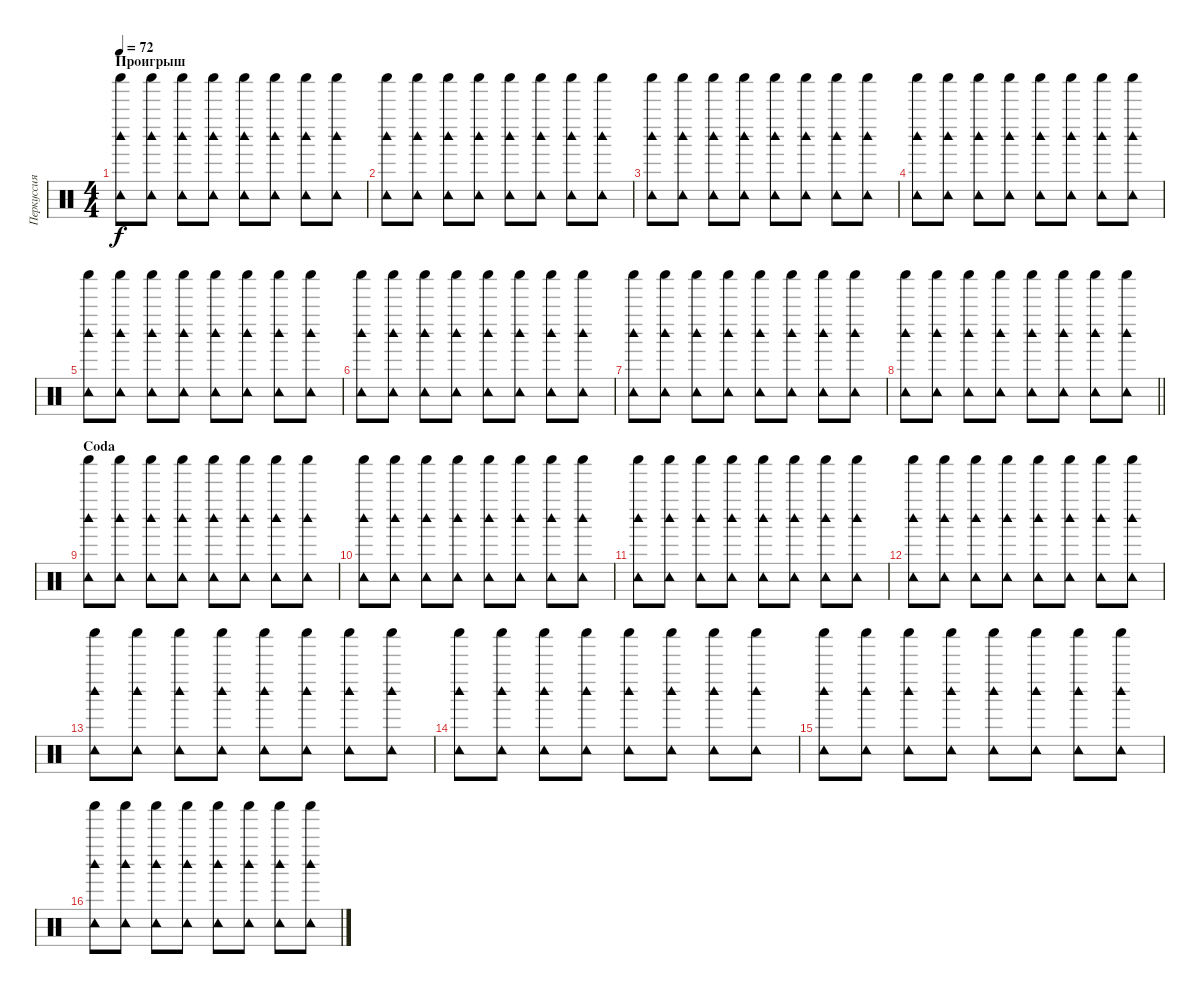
\track ("Перкуссия" "Перкуссия") {instrument percussion}
\staff {score}
\articulation defaults
\ts (4 4)
\section ("" "Проигрыш")
\tempo 72
\clef neutral
\ks c
("Shaker (hit)" "Woodblock high (hit)" "Tambourine (hit)").8{dy f} ("Shaker (hit)" "Woodblock high (hit)" "Tambourine (hit)").8 ("Shaker (hit)" "Woodblock high (hit)" "Tambourine (hit)").8 ("Shaker (hit)" "Woodblock high (hit)" "Tambourine (hit)").8 ("Shaker (hit)" "Woodblock high (hit)" "Tambourine (hit)").8 ("Shaker (hit)" "Woodblock high (hit)" "Tambourine (hit)").8 ("Shaker (hit)" "Woodblock high (hit)" "Tambourine (hit)").8 ("Shaker (hit)" "Woodblock high (hit)" "Tambourine (hit)").8 |
("Shaker (hit)" "Woodblock high (hit)" "Tambourine (hit)").8 ("Shaker (hit)" "Woodblock high (hit)" "Tambourine (hit)").8 ("Shaker (hit)" "Woodblock high (hit)" "Tambourine (hit)").8 ("Shaker (hit)" "Woodblock high (hit)" "Tambourine (hit)").8 ("Shaker (hit)" "Woodblock high (hit)" "Tambourine (hit)").8 ("Shaker (hit)" "Woodblock high (hit)" "Tambourine (hit)").8 ("Shaker (hit)" "Woodblock high (hit)" "Tambourine (hit)").8 ("Shaker (hit)" "Woodblock high (hit)" "Tambourine (hit)").8 |
("Shaker (hit)" "Woodblock high (hit)" "Tambourine (hit)").8 ("Shaker (hit)" "Woodblock high (hit)" "Tambourine (hit)").8 ("Shaker (hit)" "Woodblock high (hit)" "Tambourine (hit)").8 ("Shaker (hit)" "Woodblock high (hit)" "Tambourine (hit)").8 ("Shaker (hit)" "Woodblock high (hit)" "Tambourine (hit)").8 ("Shaker (hit)" "Woodblock high (hit)" "Tambourine (hit)").8 ("Shaker (hit)" "Woodblock high (hit)" "Tambourine (hit)").8 ("Shaker (hit)" "Woodblock high (hit)" "Tambourine (hit)").8 |
("Shaker (hit)" "Woodblock high (hit)" "Tambourine (hit)").8 ("Shaker (hit)" "Woodblock high (hit)" "Tambourine (hit)").8 ("Shaker (hit)" "Woodblock high (hit)" "Tambourine (hit)").8 ("Shaker (hit)" "Woodblock high (hit)" "Tambourine (hit)").8 ("Shaker (hit)" "Woodblock high (hit)" "Tambourine (hit)").8 ("Shaker (hit)" "Woodblock high (hit)" "Tambourine (hit)").8 ("Shaker (hit)" "Woodblock high (hit)" "Tambourine (hit)").8 ("Shaker (hit)" "Woodblock high (hit)" "Tambourine (hit)").8 |
("Shaker (hit)" "Woodblock high (hit)" "Tambourine (hit)").8 ("Shaker (hit)" "Woodblock high (hit)" "Tambourine (hit)").8 ("Shaker (hit)" "Woodblock high (hit)" "Tambourine (hit)").8 ("Shaker (hit)" "Woodblock high (hit)" "Tambourine (hit)").8 ("Shaker (hit)" "Woodblock high (hit)" "Tambourine (hit)").8 ("Shaker (hit)" "Woodblock high (hit)" "Tambourine (hit)").8 ("Shaker (hit)" "Woodblock high (hit)" "Tambourine (hit)").8 ("Shaker (hit)" "Woodblock high (hit)" "Tambourine (hit)").8 |
("Shaker (hit)" "Woodblock high (hit)" "Tambourine (hit)").8 ("Shaker (hit)" "Woodblock high (hit)" "Tambourine (hit)").8 ("Shaker (hit)" "Woodblock high (hit)" "Tambourine (hit)").8 ("Shaker (hit)" "Woodblock high (hit)" "Tambourine (hit)").8 ("Shaker (hit)" "Woodblock high (hit)" "Tambourine (hit)").8 ("Shaker (hit)" "Woodblock high (hit)" "Tambourine (hit)").8 ("Shaker (hit)" "Woodblock high (hit)" "Tambourine (hit)").8 ("Shaker (hit)" "Woodblock high (hit)" "Tambourine (hit)").8 |
("Shaker (hit)" "Woodblock high (hit)" "Tambourine (hit)").8 ("Shaker (hit)" "Woodblock high (hit)" "Tambourine (hit)").8 ("Shaker (hit)" "Woodblock high (hit)" "Tambourine (hit)").8 ("Shaker (hit)" "Woodblock high (hit)" "Tambourine (hit)").8 ("Shaker (hit)" "Woodblock high (hit)" "Tambourine (hit)").8 ("Shaker (hit)" "Woodblock high (hit)" "Tambourine (hit)").8 ("Shaker (hit)" "Woodblock high (hit)" "Tambourine (hit)").8 ("Shaker (hit)" "Woodblock high (hit)" "Tambourine (hit)").8 |
\barLineRight lightlight
("Shaker (hit)" "Woodblock high (hit)" "Tambourine (hit)").8 ("Shaker (hit)" "Woodblock high (hit)" "Tambourine (hit)").8 ("Shaker (hit)" "Woodblock high (hit)" "Tambourine (hit)").8 ("Shaker (hit)" "Woodblock high (hit)" "Tambourine (hit)").8 ("Shaker (hit)" "Woodblock high (hit)" "Tambourine (hit)").8 ("Shaker (hit)" "Woodblock high (hit)" "Tambourine (hit)").8 ("Shaker (hit)" "Woodblock high (hit)" "Tambourine (hit)").8 ("Shaker (hit)" "Woodblock high (hit)" "Tambourine (hit)").8 |
\section ("" "Coda")
("Shaker (hit)" "Woodblock high (hit)" "Tambourine (hit)").8 ("Shaker (hit)" "Woodblock high (hit)" "Tambourine (hit)").8 ("Shaker (hit)" "Woodblock high (hit)" "Tambourine (hit)").8 ("Shaker (hit)" "Woodblock high (hit)" "Tambourine (hit)").8 ("Shaker (hit)" "Woodblock high (hit)" "Tambourine (hit)").8 ("Shaker (hit)" "Woodblock high (hit)" "Tambourine (hit)").8 ("Shaker (hit)" "Woodblock high (hit)" "Tambourine (hit)").8 ("Shaker (hit)" "Woodblock high (hit)" "Tambourine (hit)").8 |
("Shaker (hit)" "Woodblock high (hit)" "Tambourine (hit)").8 ("Shaker (hit)" "Woodblock high (hit)" "Tambourine (hit)").8 ("Shaker (hit)" "Woodblock high (hit)" "Tambourine (hit)").8 ("Shaker (hit)" "Woodblock high (hit)" "Tambourine (hit)").8 ("Shaker (hit)" "Woodblock high (hit)" "Tambourine (hit)").8 ("Shaker (hit)" "Woodblock high (hit)" "Tambourine (hit)").8 ("Shaker (hit)" "Woodblock high (hit)" "Tambourine (hit)").8 ("Shaker (hit)" "Woodblock high (hit)" "Tambourine (hit)").8 |
("Shaker (hit)" "Woodblock high (hit)" "Tambourine (hit)").8 ("Shaker (hit)" "Woodblock high (hit)" "Tambourine (hit)").8 ("Shaker (hit)" "Woodblock high (hit)" "Tambourine (hit)").8 ("Shaker (hit)" "Woodblock high (hit)" "Tambourine (hit)").8 ("Shaker (hit)" "Woodblock high (hit)" "Tambourine (hit)").8 ("Shaker (hit)" "Woodblock high (hit)" "Tambourine (hit)").8 ("Shaker (hit)" "Woodblock high (hit)" "Tambourine (hit)").8 ("Shaker (hit)" "Woodblock high (hit)" "Tambourine (hit)").8 |
("Shaker (hit)" "Woodblock high (hit)" "Tambourine (hit)").8 ("Shaker (hit)" "Woodblock high (hit)" "Tambourine (hit)").8 ("Shaker (hit)" "Woodblock high (hit)" "Tambourine (hit)").8 ("Shaker (hit)" "Woodblock high (hit)" "Tambourine (hit)").8 ("Shaker (hit)" "Woodblock high (hit)" "Tambourine (hit)").8 ("Shaker (hit)" "Woodblock high (hit)" "Tambourine (hit)").8 ("Shaker (hit)" "Woodblock high (hit)" "Tambourine (hit)").8 ("Shaker (hit)" "Woodblock high (hit)" "Tambourine (hit)").8 |
("Shaker (hit)" "Woodblock high (hit)" "Tambourine (hit)").8 ("Shaker (hit)" "Woodblock high (hit)" "Tambourine (hit)").8 ("Shaker (hit)" "Woodblock high (hit)" "Tambourine (hit)").8 ("Shaker (hit)" "Woodblock high (hit)" "Tambourine (hit)").8 ("Shaker (hit)" "Woodblock high (hit)" "Tambourine (hit)").8 ("Shaker (hit)" "Woodblock high (hit)" "Tambourine (hit)").8 ("Shaker (hit)" "Woodblock high (hit)" "Tambourine (hit)").8 ("Shaker (hit)" "Woodblock high (hit)" "Tambourine (hit)").8 |
("Shaker (hit)" "Woodblock high (hit)" "Tambourine (hit)").8 ("Shaker (hit)" "Woodblock high (hit)" "Tambourine (hit)").8 ("Shaker (hit)" "Woodblock high (hit)" "Tambourine (hit)").8 ("Shaker (hit)" "Woodblock high (hit)" "Tambourine (hit)").8 ("Shaker (hit)" "Woodblock high (hit)" "Tambourine (hit)").8 ("Shaker (hit)" "Woodblock high (hit)" "Tambourine (hit)").8 ("Shaker (hit)" "Woodblock high (hit)" "Tambourine (hit)").8 ("Shaker (hit)" "Woodblock high (hit)" "Tambourine (hit)").8 |
("Shaker (hit)" "Woodblock high (hit)" "Tambourine (hit)").8 ("Shaker (hit)" "Woodblock high (hit)" "Tambourine (hit)").8 ("Shaker (hit)" "Woodblock high (hit)" "Tambourine (hit)").8 ("Shaker (hit)" "Woodblock high (hit)" "Tambourine (hit)").8 ("Shaker (hit)" "Woodblock high (hit)" "Tambourine (hit)").8 ("Shaker (hit)" "Woodblock high (hit)" "Tambourine (hit)").8 ("Shaker (hit)" "Woodblock high (hit)" "Tambourine (hit)").8 ("Shaker (hit)" "Woodblock high (hit)" "Tambourine (hit)").8 |
("Shaker (hit)" "Woodblock high (hit)" "Tambourine (hit)").8 ("Shaker (hit)" "Woodblock high (hit)" "Tambourine (hit)").8 ("Shaker (hit)" "Woodblock high (hit)" "Tambourine (hit)").8 ("Shaker (hit)" "Woodblock high (hit)" "Tambourine (hit)").8 ("Shaker (hit)" "Woodblock high (hit)" "Tambourine (hit)").8 ("Shaker (hit)" "Woodblock high (hit)" "Tambourine (hit)").8 ("Shaker (hit)" "Woodblock high (hit)" "Tambourine (hit)").8 ("Shaker (hit)" "Woodblock high (hit)" "Tambourine (hit)").8
